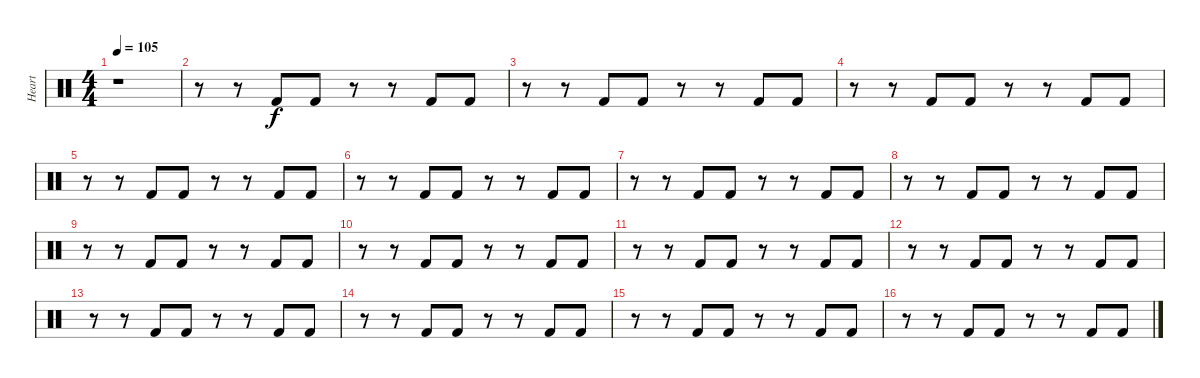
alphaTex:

\track ("Heart" "Heart") {instrument percussion}
\staff {score}
\articulation defaults
\ts (4 4)
\tempo 105
\clef neutral
\ks c
r.1{dy f} |
r.8 r.8 "Kick (hit) 2".8 "Kick (hit) 2".8 r.8 r.8 "Kick (hit) 2".8 "Kick (hit) 2".8 |
r.8 r.8 "Kick (hit) 2".8 "Kick (hit) 2".8 r.8 r.8 "Kick (hit) 2".8 "Kick (hit) 2".8 |
r.8 r.8 "Kick (hit) 2".8 "Kick (hit) 2".8 r.8 r.8 "Kick (hit) 2".8 "Kick (hit) 2".8 |
r.8 r.8 "Kick (hit) 2".8 "Kick (hit) 2".8 r.8 r.8 "Kick (hit) 2".8 "Kick (hit) 2".8 |
r.8 r.8 "Kick (hit) 2".8 "Kick (hit) 2".8 r.8 r.8 "Kick (hit) 2".8 "Kick (hit) 2".8 |
r.8 r.8 "Kick (hit) 2".8 "Kick (hit) 2".8 r.8 r.8 "Kick (hit) 2".8 "Kick (hit) 2".8 |
r.8 r.8 "Kick (hit) 2".8 "Kick (hit) 2".8 r.8 r.8 "Kick (hit) 2".8 "Kick (hit) 2".8 |
r.8 r.8 "Kick (hit) 2".8 "Kick (hit) 2".8 r.8 r.8 "Kick (hit) 2".8 "Kick (hit) 2".8 |
r.8 r.8 "Kick (hit) 2".8 "Kick (hit) 2".8 r.8 r.8 "Kick (hit) 2".8 "Kick (hit) 2".8 |
r.8 r.8 "Kick (hit) 2".8 "Kick (hit) 2".8 r.8 r.8 "Kick (hit) 2".8 "Kick (hit) 2".8 |
r.8 r.8 "Kick (hit) 2".8 "Kick (hit) 2".8 r.8 r.8 "Kick (hit) 2".8 "Kick (hit) 2".8 |
r.8 r.8 "Kick (hit) 2".8 "Kick (hit) 2".8 r.8 r.8 "Kick (hit) 2".8 "Kick (hit) 2".8 |
r.8 r.8 "Kick (hit) 2".8 "Kick (hit) 2".8 r.8 r.8 "Kick (hit) 2".8 "Kick (hit) 2".8 |
r.8 r.8 "Kick (hit) 2".8 "Kick (hit) 2".8 r.8 r.8 "Kick (hit) 2".8 "Kick (hit) 2".8 |
r.8 r.8 "Kick (hit) 2".8 "Kick (hit) 2".8 r.8 r.8 "Kick (hit) 2".8 "Kick (hit) 2".8
